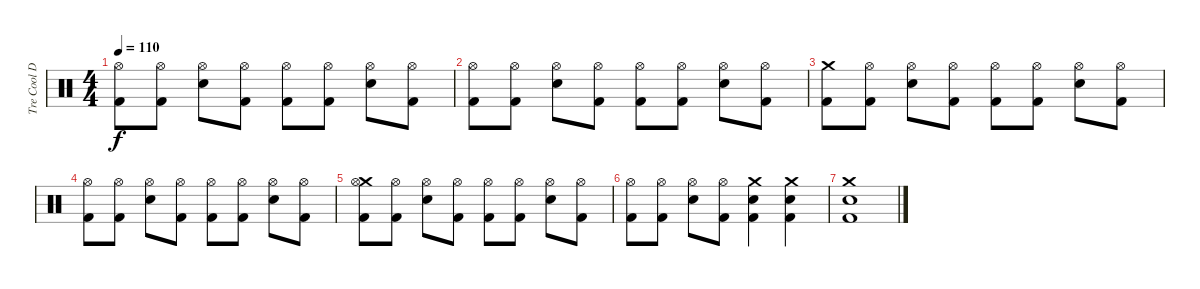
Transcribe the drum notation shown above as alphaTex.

\track ("Tre Cool Drums" "Tre Cool D") {instrument percussion}
\staff {score}
\articulation defaults
\ts (4 4)
\tempo 110
\clef neutral
\ks c
("Hi-Hat (open)" "Kick (hit) 2").8{dy f} ("Hi-Hat (open)" "Kick (hit) 2").8 ("Hi-Hat (open)" "Electric Snare (hit)").8 ("Hi-Hat (open)" "Kick (hit) 2").8 ("Hi-Hat (open)" "Kick (hit) 2").8 ("Hi-Hat (open)" "Kick (hit) 2").8 ("Hi-Hat (open)" "Electric Snare (hit)").8 ("Hi-Hat (open)" "Kick (hit) 2").8 |
("Hi-Hat (open)" "Kick (hit) 2").8 ("Hi-Hat (open)" "Kick (hit) 2").8 ("Hi-Hat (open)" "Electric Snare (hit)").8 ("Hi-Hat (open)" "Kick (hit) 2").8 ("Hi-Hat (open)" "Kick (hit) 2").8 ("Hi-Hat (open)" "Kick (hit) 2").8 ("Hi-Hat (open)" "Electric Snare (hit)").8 ("Hi-Hat (open)" "Kick (hit) 2").8 |
("Crash medium (hit)" "Kick (hit) 2").8 ("Hi-Hat (open)" "Kick (hit) 2").8 ("Hi-Hat (open)" "Electric Snare (hit)").8 ("Hi-Hat (open)" "Kick (hit) 2").8 ("Hi-Hat (open)" "Kick (hit) 2").8 ("Hi-Hat (open)" "Kick (hit) 2").8 ("Hi-Hat (open)" "Electric Snare (hit)").8 ("Hi-Hat (open)" "Kick (hit) 2").8 |
("Hi-Hat (open)" "Kick (hit) 2").8 ("Hi-Hat (open)" "Kick (hit) 2").8 ("Hi-Hat (open)" "Electric Snare (hit)").8 ("Hi-Hat (open)" "Kick (hit) 2").8 ("Hi-Hat (open)" "Kick (hit) 2").8 ("Hi-Hat (open)" "Kick (hit) 2").8 ("Hi-Hat (open)" "Electric Snare (hit)").8 ("Hi-Hat (open)" "Kick (hit) 2").8 |
("Crash medium (hit)" "Hi-Hat (open)" "Kick (hit) 2").8 ("Hi-Hat (open)" "Kick (hit) 2").8 ("Hi-Hat (open)" "Electric Snare (hit)").8 ("Hi-Hat (open)" "Kick (hit) 2").8 ("Hi-Hat (open)" "Kick (hit) 2").8 ("Hi-Hat (open)" "Kick (hit) 2").8 ("Hi-Hat (open)" "Electric Snare (hit)").8 ("Hi-Hat (open)" "Kick (hit) 2").8 |
("Hi-Hat (open)" "Kick (hit) 2").8 ("Hi-Hat (open)" "Kick (hit) 2").8 ("Hi-Hat (open)" "Electric Snare (hit)").8 ("Hi-Hat (open)" "Kick (hit) 2").8 ("Crash medium (hit)" "Electric Snare (hit)" "Kick (hit) 2").4 ("Crash medium (hit)" "Electric Snare (hit)" "Kick (hit) 2").4 |
("Crash medium (hit)" "Electric Snare (hit)" "Kick (hit) 2").1
